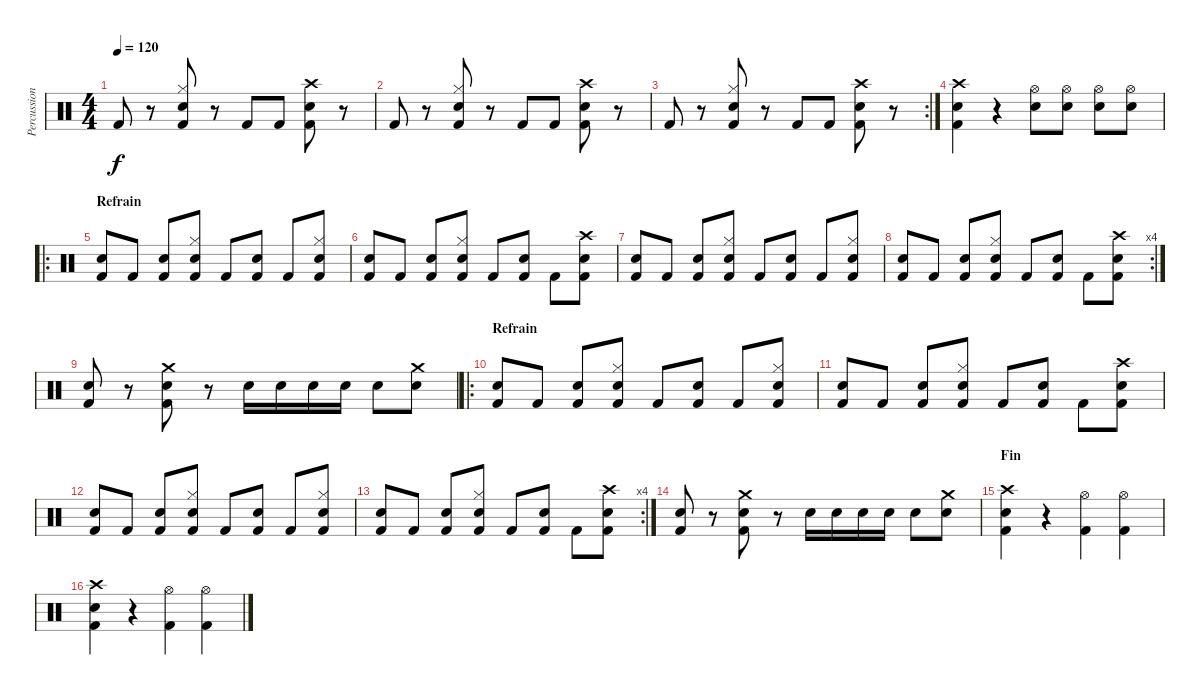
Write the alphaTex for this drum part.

\track ("Percussions" "Percussion") {instrument percussion}
\staff {score}
\articulation defaults
\ts (4 4)
\tempo 120
\clef neutral
\ks c "Kick (hit) 2".8{dy f}
r.8 ("Hi-Hat (closed)" "Snare (hit) 2" "Kick (hit) 2").8 r.8 "Kick (hit) 2".8 "Kick (hit) 2".8 ("Snare (hit) 2" "Crash high (hit)" "Kick (hit) 2").8 r.8 |
"Kick (hit) 2".8 r.8 ("Hi-Hat (closed)" "Snare (hit) 2" "Kick (hit) 2").8 r.8 "Kick (hit) 2".8 "Kick (hit) 2".8 ("Snare (hit) 2" "Crash high (hit)" "Kick (hit) 2").8 r.8 |
\rc 2 "Kick (hit) 2".8
r.8 ("Hi-Hat (closed)" "Snare (hit) 2" "Kick (hit) 2").8 r.8 "Kick (hit) 2".8 "Kick (hit) 2".8 ("Snare (hit) 2" "Crash high (hit)" "Kick (hit) 2").8 r.8 |
("Snare (hit) 2" "Crash high (hit)" "Kick (hit) 2").4 r.4 ("Snare (hit) 2" "Hi-Hat (open)").8 ("Snare (hit) 2" "Hi-Hat (open)").8 ("Snare (hit) 2" "Hi-Hat (open)").8 ("Snare (hit) 2" "Hi-Hat (open)").8 |
\ro
\section ("" "Refrain")
("Kick (hit) 2" "Snare (hit) 2").8 "Kick (hit) 2".8 ("Kick (hit) 2" "Snare (hit) 2").8 ("Hi-Hat (closed)" "Snare (hit) 2" "Kick (hit) 2").8 "Kick (hit) 2".8 ("Kick (hit) 2" "Snare (hit) 2").8 "Kick (hit) 2".8 ("Snare (hit) 2" "Hi-Hat (closed)" "Kick (hit) 2").8 |
("Kick (hit) 2" "Snare (hit) 2").8 "Kick (hit) 2".8 ("Kick (hit) 2" "Snare (hit) 2").8 ("Hi-Hat (closed)" "Snare (hit) 2" "Kick (hit) 2").8 "Kick (hit) 2".8 ("Kick (hit) 2" "Snare (hit) 2").8 "Kick (hit) 2".8 ("Snare (hit) 2" "Crash high (hit)" "Kick (hit) 2").8 |
("Kick (hit) 2" "Snare (hit) 2").8 "Kick (hit) 2".8 ("Kick (hit) 2" "Snare (hit) 2").8 ("Hi-Hat (closed)" "Snare (hit) 2" "Kick (hit) 2").8 "Kick (hit) 2".8 ("Kick (hit) 2" "Snare (hit) 2").8 "Kick (hit) 2".8 ("Snare (hit) 2" "Hi-Hat (closed)" "Kick (hit) 2").8 |
\rc 4
("Kick (hit) 2" "Snare (hit) 2").8 "Kick (hit) 2".8 ("Kick (hit) 2" "Snare (hit) 2").8 ("Hi-Hat (closed)" "Snare (hit) 2" "Kick (hit) 2").8 "Kick (hit) 2".8 ("Kick (hit) 2" "Snare (hit) 2").8 "Kick (hit) 2".8 ("Snare (hit) 2" "Crash high (hit)" "Kick (hit) 2").8 |
("Kick (hit) 2" "Snare (hit) 2").8 r.8 ("Crash medium (hit)" "Snare (hit) 2" "Kick (hit) 2").8 r.8 "Snare (hit) 2".16 "Snare (hit) 2".16 "Snare (hit) 2".16 "Snare (hit) 2".16 "Snare (hit) 2".8 ("Crash medium (hit)" "Snare (hit) 2").8 |
\ro
\section ("" "Refrain")
("Kick (hit) 2" "Snare (hit) 2").8 "Kick (hit) 2".8 ("Kick (hit) 2" "Snare (hit) 2").8 ("Hi-Hat (closed)" "Snare (hit) 2" "Kick (hit) 2").8 "Kick (hit) 2".8 ("Kick (hit) 2" "Snare (hit) 2").8 "Kick (hit) 2".8 ("Snare (hit) 2" "Hi-Hat (closed)" "Kick (hit) 2").8 |
("Kick (hit) 2" "Snare (hit) 2").8 "Kick (hit) 2".8 ("Kick (hit) 2" "Snare (hit) 2").8 ("Hi-Hat (closed)" "Snare (hit) 2" "Kick (hit) 2").8 "Kick (hit) 2".8 ("Kick (hit) 2" "Snare (hit) 2").8 "Kick (hit) 2".8 ("Snare (hit) 2" "Crash high (hit)" "Kick (hit) 2").8 |
("Kick (hit) 2" "Snare (hit) 2").8 "Kick (hit) 2".8 ("Kick (hit) 2" "Snare (hit) 2").8 ("Hi-Hat (closed)" "Snare (hit) 2" "Kick (hit) 2").8 "Kick (hit) 2".8 ("Kick (hit) 2" "Snare (hit) 2").8 "Kick (hit) 2".8 ("Snare (hit) 2" "Hi-Hat (closed)" "Kick (hit) 2").8 |
\rc 4
("Kick (hit) 2" "Snare (hit) 2").8 "Kick (hit) 2".8 ("Kick (hit) 2" "Snare (hit) 2").8 ("Hi-Hat (closed)" "Snare (hit) 2" "Kick (hit) 2").8 "Kick (hit) 2".8 ("Kick (hit) 2" "Snare (hit) 2").8 "Kick (hit) 2".8 ("Snare (hit) 2" "Crash high (hit)" "Kick (hit) 2").8 |
("Kick (hit) 2" "Snare (hit) 2").8 r.8 ("Crash medium (hit)" "Snare (hit) 2" "Kick (hit) 2").8 r.8 "Snare (hit) 2".16 "Snare (hit) 2".16 "Snare (hit) 2".16 "Snare (hit) 2".16 "Snare (hit) 2".8 ("Crash medium (hit)" "Snare (hit) 2").8 |
\section ("" "Fin")
("Snare (hit) 2" "Kick (hit) 2" "Crash high (hit)").4 r.4 ("Hi-Hat (open)" "Kick (hit) 2").4 ("Hi-Hat (open)" "Kick (hit) 2").4 |
("Snare (hit) 2" "Kick (hit) 2" "Crash high (hit)").4 r.4 ("Hi-Hat (open)" "Kick (hit) 2").4 ("Hi-Hat (open)" "Kick (hit) 2").4
